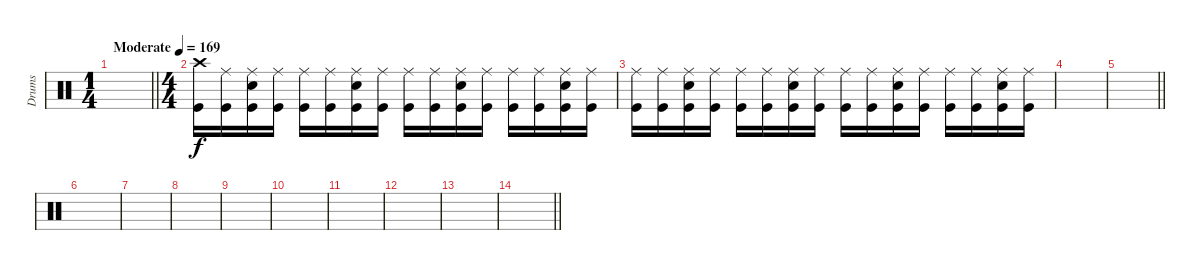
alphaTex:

\track ("Drums" "Drums") {instrument percussion}
\staff
\articulation defaults
\ts (1 4)
\tempo (169 "Moderate")
\clef neutral
\barLineRight lightlight
\ks c
|
\ts (4 4)
("Crash high (hit)" "Kick (hit)").16 ("Ride (middle)" "Kick (hit)").16 ("Ride (middle)" "Electric Snare (hit)" "Kick (hit)").16 ("Ride (middle)" "Kick (hit)").16 ("Ride (middle)" "Kick (hit)").16 ("Ride (middle)" "Kick (hit)").16 ("Ride (middle)" "Electric Snare (hit)" "Kick (hit)").16 ("Ride (middle)" "Kick (hit)").16 ("Ride (middle)" "Kick (hit)").16 ("Ride (middle)" "Kick (hit)").16 ("Ride (middle)" "Electric Snare (hit)" "Kick (hit)").16 ("Ride (middle)" "Kick (hit)").16 ("Ride (middle)" "Kick (hit)").16 ("Ride (middle)" "Kick (hit)").16 ("Ride (middle)" "Electric Snare (hit)" "Kick (hit)").16 ("Ride (middle)" "Kick (hit)").16 |
("Ride (middle)" "Kick (hit)").16 ("Ride (middle)" "Kick (hit)").16 ("Ride (middle)" "Electric Snare (hit)" "Kick (hit)").16 ("Ride (middle)" "Kick (hit)").16 ("Ride (middle)" "Kick (hit)").16 ("Ride (middle)" "Kick (hit)").16 ("Ride (middle)" "Electric Snare (hit)" "Kick (hit)").16 ("Ride (middle)" "Kick (hit)").16 ("Ride (middle)" "Kick (hit)").16 ("Ride (middle)" "Kick (hit)").16 ("Ride (middle)" "Electric Snare (hit)" "Kick (hit)").16 ("Ride (middle)" "Kick (hit)").16 ("Ride (middle)" "Kick (hit)").16 ("Ride (middle)" "Kick (hit)").16 ("Ride (middle)" "Electric Snare (hit)" "Kick (hit)").16 ("Ride (middle)" "Kick (hit)").16 |
|
\barLineRight lightlight
|
|
|
|
|
|
|
|
|
\barLineRight lightlight
